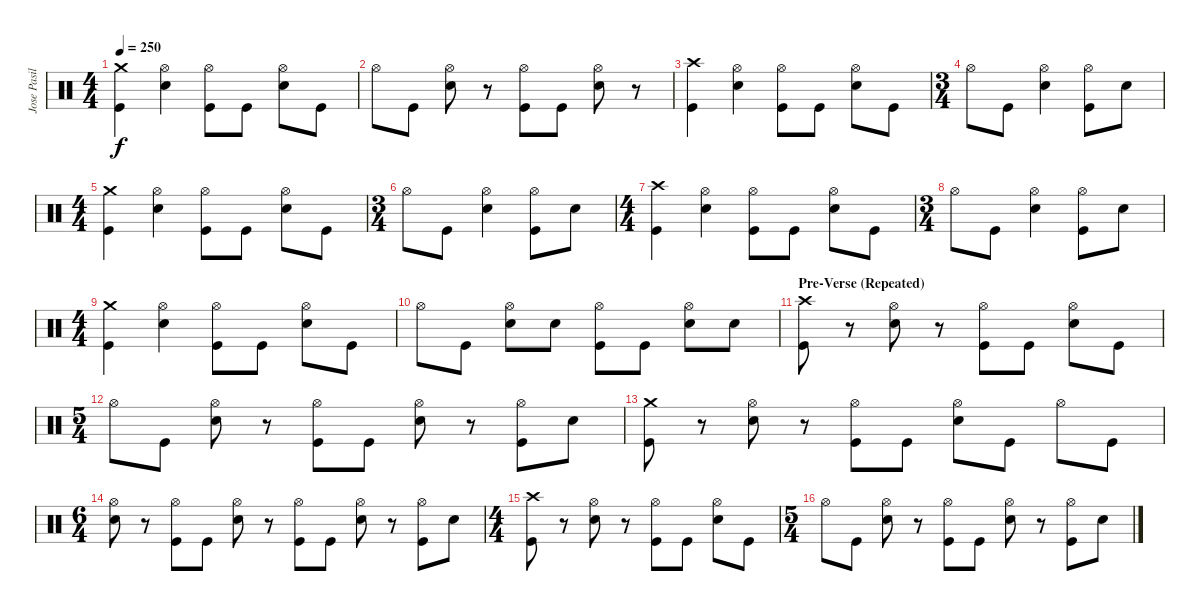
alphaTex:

\track ("Jose Pasillas II" "Jose Pasil") {instrument percussion}
\staff {score}
\articulation defaults
\ts (4 4)
\tempo 250
\clef neutral
\ks c
("Crash medium (hit)" "Kick (hit)").4{dy f} ("Hi-Hat (open)" "Electric Snare (hit)").4 ("Hi-Hat (open)" "Kick (hit)").8 "Kick (hit)".8 ("Hi-Hat (open)" "Electric Snare (hit)").8 "Kick (hit)".8 |
"Hi-Hat (open)".8 "Kick (hit)".8 ("Hi-Hat (open)" "Electric Snare (hit)").8 r.8 ("Hi-Hat (open)" "Kick (hit)").8 "Kick (hit)".8 ("Hi-Hat (open)" "Electric Snare (hit)").8 r.8 |
("Crash high (hit)" "Kick (hit)").4 ("Hi-Hat (open)" "Electric Snare (hit)").4 ("Hi-Hat (open)" "Kick (hit)").8 "Kick (hit)".8 ("Hi-Hat (open)" "Electric Snare (hit)").8 "Kick (hit)".8 |
\ts (3 4)
"Hi-Hat (open)".8 "Kick (hit)".8 ("Hi-Hat (open)" "Electric Snare (hit)").4 ("Hi-Hat (open)" "Kick (hit)").8 "Electric Snare (hit)".8 |
\ts (4 4)
("Crash medium (hit)" "Kick (hit)").4 ("Hi-Hat (open)" "Electric Snare (hit)").4 ("Hi-Hat (open)" "Kick (hit)").8 "Kick (hit)".8 ("Hi-Hat (open)" "Electric Snare (hit)").8 "Kick (hit)".8 |
\ts (3 4)
"Hi-Hat (open)".8 "Kick (hit)".8 ("Hi-Hat (open)" "Electric Snare (hit)").4 ("Hi-Hat (open)" "Kick (hit)").8 "Electric Snare (hit)".8 |
\ts (4 4)
("Crash high (hit)" "Kick (hit)").4 ("Hi-Hat (open)" "Electric Snare (hit)").4 ("Hi-Hat (open)" "Kick (hit)").8 "Kick (hit)".8 ("Hi-Hat (open)" "Electric Snare (hit)").8 "Kick (hit)".8 |
\ts (3 4)
"Hi-Hat (open)".8 "Kick (hit)".8 ("Hi-Hat (open)" "Electric Snare (hit)").4 ("Hi-Hat (open)" "Kick (hit)").8 "Electric Snare (hit)".8 |
\ts (4 4)
("Crash medium (hit)" "Kick (hit)").4 ("Hi-Hat (open)" "Electric Snare (hit)").4 ("Hi-Hat (open)" "Kick (hit)").8 "Kick (hit)".8 ("Hi-Hat (open)" "Electric Snare (hit)").8 "Kick (hit)".8 |
"Hi-Hat (open)".8 "Kick (hit)".8 ("Hi-Hat (open)" "Electric Snare (hit)").8 "Electric Snare (hit)".8 ("Hi-Hat (open)" "Kick (hit)").8 "Kick (hit)".8 ("Hi-Hat (open)" "Electric Snare (hit)").8 "Electric Snare (hit)".8 |
\section ("" "Pre-Verse (Repeated)")
("Crash high (hit)" "Kick (hit)").8 r.8 ("Hi-Hat (open)" "Electric Snare (hit)").8 r.8 ("Hi-Hat (open)" "Kick (hit)").8 "Kick (hit)".8 ("Hi-Hat (open)" "Electric Snare (hit)").8 "Kick (hit)".8 |
\ts (5 4)
"Hi-Hat (open)".8 "Kick (hit)".8 ("Hi-Hat (open)" "Electric Snare (hit)").8 r.8 ("Hi-Hat (open)" "Kick (hit)").8 "Kick (hit)".8 ("Hi-Hat (open)" "Electric Snare (hit)").8 r.8 ("Hi-Hat (open)" "Kick (hit)").8 "Electric Snare (hit)".8 |
("Crash medium (hit)" "Kick (hit)").8 r.8 ("Hi-Hat (open)" "Electric Snare (hit)").8 r.8 ("Hi-Hat (open)" "Kick (hit)").8 "Kick (hit)".8 ("Hi-Hat (open)" "Electric Snare (hit)").8 "Kick (hit)".8 "Hi-Hat (open)".8 "Kick (hit)".8 |
\ts (6 4)
("Hi-Hat (open)" "Electric Snare (hit)").8 r.8 ("Hi-Hat (open)" "Kick (hit)").8 "Kick (hit)".8 ("Hi-Hat (open)" "Electric Snare (hit)").8 r.8 ("Hi-Hat (open)" "Kick (hit)").8 "Kick (hit)".8 ("Hi-Hat (open)" "Electric Snare (hit)").8 r.8 ("Hi-Hat (open)" "Kick (hit)").8 "Electric Snare (hit)".8 |
\ts (4 4)
("Crash high (hit)" "Kick (hit)").8 r.8 ("Hi-Hat (open)" "Electric Snare (hit)").8 r.8 ("Hi-Hat (open)" "Kick (hit)").8 "Kick (hit)".8 ("Hi-Hat (open)" "Electric Snare (hit)").8 "Kick (hit)".8 |
\ts (5 4)
"Hi-Hat (open)".8 "Kick (hit)".8 ("Hi-Hat (open)" "Electric Snare (hit)").8 r.8 ("Hi-Hat (open)" "Kick (hit)").8 "Kick (hit)".8 ("Hi-Hat (open)" "Electric Snare (hit)").8 r.8 ("Hi-Hat (open)" "Kick (hit)").8 "Electric Snare (hit)".8
